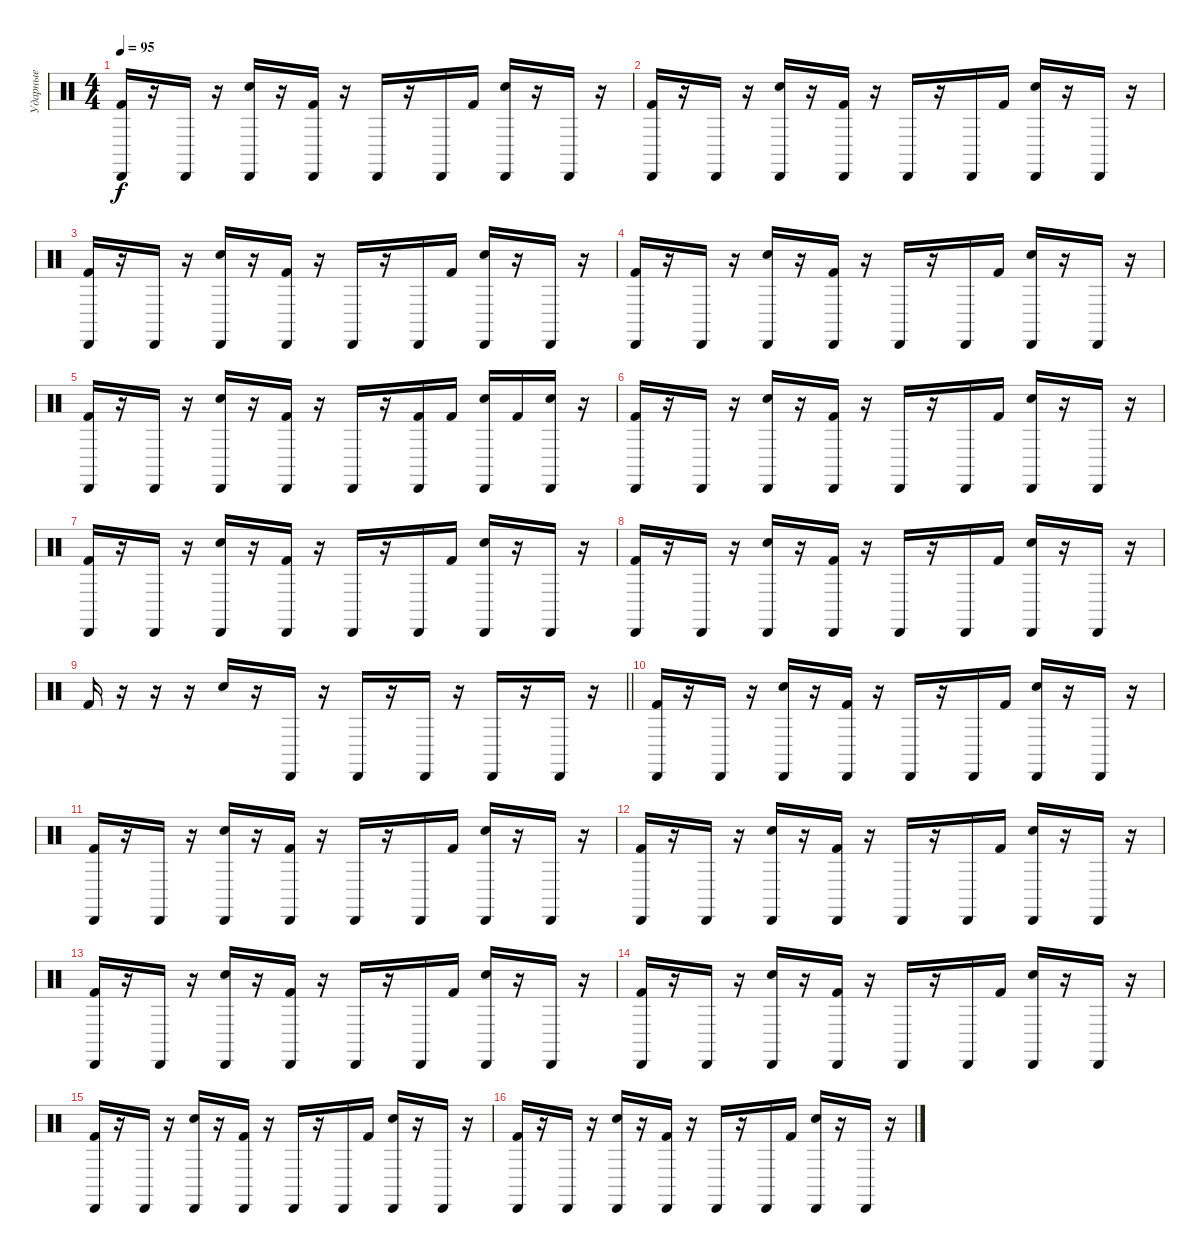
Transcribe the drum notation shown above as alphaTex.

\track ("Ударные" "Ударные") {instrument percussion}
\staff {score}
\articulation defaults
\ts (4 4)
\tempo 95
\clef neutral
\ks c
("Cabasa (hit)" "Kick (hit) 2").16{dy f} r.16 "Cabasa (hit)".16 r.16 ("Cabasa (hit)" "Snare (hit) 2").16 r.16 ("Cabasa (hit)" "Kick (hit) 2").16 r.16 "Cabasa (hit)".16 r.16 "Cabasa (hit)".16 "Kick (hit) 2".16 ("Cabasa (hit)" "Snare (hit) 2").16 r.16 "Cabasa (hit)".16 r.16 |
("Cabasa (hit)" "Kick (hit) 2").16 r.16 "Cabasa (hit)".16 r.16 ("Cabasa (hit)" "Snare (hit) 2").16 r.16 ("Cabasa (hit)" "Kick (hit) 2").16 r.16 "Cabasa (hit)".16 r.16 "Cabasa (hit)".16 "Kick (hit) 2".16 ("Cabasa (hit)" "Snare (hit) 2").16 r.16 "Cabasa (hit)".16 r.16 |
("Cabasa (hit)" "Kick (hit) 2").16 r.16 "Cabasa (hit)".16 r.16 ("Cabasa (hit)" "Snare (hit) 2").16 r.16 ("Cabasa (hit)" "Kick (hit) 2").16 r.16 "Cabasa (hit)".16 r.16 "Cabasa (hit)".16 "Kick (hit) 2".16 ("Cabasa (hit)" "Snare (hit) 2").16 r.16 "Cabasa (hit)".16 r.16 |
("Cabasa (hit)" "Kick (hit) 2").16 r.16 "Cabasa (hit)".16 r.16 ("Cabasa (hit)" "Snare (hit) 2").16 r.16 ("Cabasa (hit)" "Kick (hit) 2").16 r.16 "Cabasa (hit)".16 r.16 "Cabasa (hit)".16 "Kick (hit) 2".16 ("Cabasa (hit)" "Snare (hit) 2").16 r.16 "Cabasa (hit)".16 r.16 |
("Cabasa (hit)" "Kick (hit) 2").16 r.16 "Cabasa (hit)".16 r.16 ("Cabasa (hit)" "Snare (hit) 2").16 r.16 ("Cabasa (hit)" "Kick (hit) 2").16 r.16 "Cabasa (hit)".16 r.16 ("Cabasa (hit)" "Kick (hit) 2").16 "Kick (hit) 2".16 ("Cabasa (hit)" "Snare (hit) 2").16 "Kick (hit) 2".16 ("Cabasa (hit)" "Snare (hit) 2").16 r.16 |
("Cabasa (hit)" "Kick (hit) 2").16 r.16 "Cabasa (hit)".16 r.16 ("Cabasa (hit)" "Snare (hit) 2").16 r.16 ("Cabasa (hit)" "Kick (hit) 2").16 r.16 "Cabasa (hit)".16 r.16 "Cabasa (hit)".16 "Kick (hit) 2".16 ("Cabasa (hit)" "Snare (hit) 2").16 r.16 "Cabasa (hit)".16 r.16 |
("Cabasa (hit)" "Kick (hit) 2").16 r.16 "Cabasa (hit)".16 r.16 ("Cabasa (hit)" "Snare (hit) 2").16 r.16 ("Cabasa (hit)" "Kick (hit) 2").16 r.16 "Cabasa (hit)".16 r.16 "Cabasa (hit)".16 "Kick (hit) 2".16 ("Cabasa (hit)" "Snare (hit) 2").16 r.16 "Cabasa (hit)".16 r.16 |
("Cabasa (hit)" "Kick (hit) 2").16 r.16 "Cabasa (hit)".16 r.16 ("Cabasa (hit)" "Snare (hit) 2").16 r.16 ("Cabasa (hit)" "Kick (hit) 2").16 r.16 "Cabasa (hit)".16 r.16 "Cabasa (hit)".16 "Kick (hit) 2".16 ("Cabasa (hit)" "Snare (hit) 2").16 r.16 "Cabasa (hit)".16 r.16 |
\barLineRight lightlight "Kick (hit) 2".16
r.16 r.16 r.16 "Snare (hit) 2".16 r.16 "Cabasa (hit)".16 r.16 "Cabasa (hit)".16 r.16 "Cabasa (hit)".16 r.16 "Cabasa (hit)".16 r.16 "Cabasa (hit)".16 r.16 |
("Cabasa (hit)" "Kick (hit) 2").16 r.16 "Cabasa (hit)".16 r.16 ("Cabasa (hit)" "Snare (hit) 2").16 r.16 ("Cabasa (hit)" "Kick (hit) 2").16 r.16 "Cabasa (hit)".16 r.16 "Cabasa (hit)".16 "Kick (hit) 2".16 ("Cabasa (hit)" "Snare (hit) 2").16 r.16 "Cabasa (hit)".16 r.16 |
("Cabasa (hit)" "Kick (hit) 2").16 r.16 "Cabasa (hit)".16 r.16 ("Cabasa (hit)" "Snare (hit) 2").16 r.16 ("Cabasa (hit)" "Kick (hit) 2").16 r.16 "Cabasa (hit)".16 r.16 "Cabasa (hit)".16 "Kick (hit) 2".16 ("Cabasa (hit)" "Snare (hit) 2").16 r.16 "Cabasa (hit)".16 r.16 |
("Cabasa (hit)" "Kick (hit) 2").16 r.16 "Cabasa (hit)".16 r.16 ("Cabasa (hit)" "Snare (hit) 2").16 r.16 ("Cabasa (hit)" "Kick (hit) 2").16 r.16 "Cabasa (hit)".16 r.16 "Cabasa (hit)".16 "Kick (hit) 2".16 ("Cabasa (hit)" "Snare (hit) 2").16 r.16 "Cabasa (hit)".16 r.16 |
("Cabasa (hit)" "Kick (hit) 2").16 r.16 "Cabasa (hit)".16 r.16 ("Cabasa (hit)" "Snare (hit) 2").16 r.16 ("Cabasa (hit)" "Kick (hit) 2").16 r.16 "Cabasa (hit)".16 r.16 "Cabasa (hit)".16 "Kick (hit) 2".16 ("Cabasa (hit)" "Snare (hit) 2").16 r.16 "Cabasa (hit)".16 r.16 |
("Cabasa (hit)" "Kick (hit) 2").16 r.16 "Cabasa (hit)".16 r.16 ("Cabasa (hit)" "Snare (hit) 2").16 r.16 ("Cabasa (hit)" "Kick (hit) 2").16 r.16 "Cabasa (hit)".16 r.16 "Cabasa (hit)".16 "Kick (hit) 2".16 ("Cabasa (hit)" "Snare (hit) 2").16 r.16 "Cabasa (hit)".16 r.16 |
("Cabasa (hit)" "Kick (hit) 2").16 r.16 "Cabasa (hit)".16 r.16 ("Cabasa (hit)" "Snare (hit) 2").16 r.16 ("Cabasa (hit)" "Kick (hit) 2").16 r.16 "Cabasa (hit)".16 r.16 "Cabasa (hit)".16 "Kick (hit) 2".16 ("Cabasa (hit)" "Snare (hit) 2").16 r.16 "Cabasa (hit)".16 r.16 |
("Cabasa (hit)" "Kick (hit) 2").16 r.16 "Cabasa (hit)".16 r.16 ("Cabasa (hit)" "Snare (hit) 2").16 r.16 ("Cabasa (hit)" "Kick (hit) 2").16 r.16 "Cabasa (hit)".16 r.16 "Cabasa (hit)".16 "Kick (hit) 2".16 ("Cabasa (hit)" "Snare (hit) 2").16 r.16 "Cabasa (hit)".16 r.16
